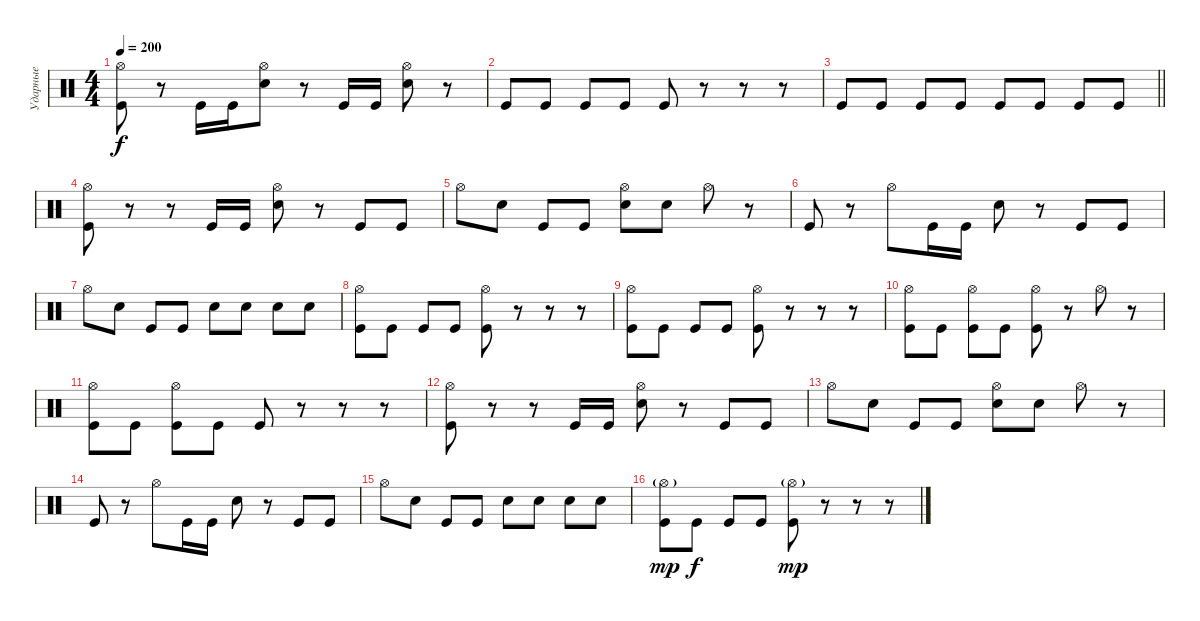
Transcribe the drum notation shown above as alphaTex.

\track ("Ударные" "Ударные") {instrument percussion}
\staff {score}
\articulation defaults
\ts (4 4)
\tempo 200
\clef neutral
\ks c
("Hi-Hat (open)" "Kick (hit)").8{dy f} r.8 "Kick (hit)".16 "Kick (hit)".16 ("Hi-Hat (open)" "Snare (hit) 2").8 r.8 "Kick (hit)".16 "Kick (hit)".16 ("Hi-Hat (open)" "Snare (hit) 2").8 r.8 |
"Kick (hit)".8 "Kick (hit)".8 "Kick (hit)".8 "Kick (hit)".8 "Kick (hit)".8 r.8 r.8 r.8 |
\barLineRight lightlight "Kick (hit)".8 "Kick (hit)".8 "Kick (hit)".8 "Kick (hit)".8 "Kick (hit)".8 "Kick (hit)".8 "Kick (hit)".8 "Kick (hit)".8
|
("Hi-Hat (open)" "Kick (hit)").8 r.8 r.8 "Kick (hit)".16 "Kick (hit)".16 ("Hi-Hat (open)" "Snare (hit) 2").8 r.8 "Kick (hit)".8 "Kick (hit)".8 |
"Hi-Hat (open)".8 "Snare (hit) 2".8 "Kick (hit)".8 "Kick (hit)".8 ("Hi-Hat (open)" "Snare (hit) 2").8 "Snare (hit) 2".8 "Hi-Hat (open)".8 r.8 |
"Kick (hit)".8 r.8 "Hi-Hat (open)".8 "Kick (hit)".16 "Kick (hit)".16 "Snare (hit) 2".8 r.8 "Kick (hit)".8 "Kick (hit)".8 |
"Hi-Hat (open)".8 "Snare (hit) 2".8 "Kick (hit)".8 "Kick (hit)".8 "Snare (hit) 2".8 "Snare (hit) 2".8 "Snare (hit) 2".8 "Snare (hit) 2".8 |
("Hi-Hat (open)" "Kick (hit)").8 "Kick (hit)".8 "Kick (hit)".8 "Kick (hit)".8 ("Hi-Hat (open)" "Kick (hit)").8 r.8 r.8 r.8 |
("Hi-Hat (open)" "Kick (hit)").8 "Kick (hit)".8 "Kick (hit)".8 "Kick (hit)".8 ("Hi-Hat (open)" "Kick (hit)").8 r.8 r.8 r.8 |
("Hi-Hat (open)" "Kick (hit)").8 "Kick (hit)".8 ("Hi-Hat (open)" "Kick (hit)").8 "Kick (hit)".8 ("Hi-Hat (open)" "Kick (hit)").8 r.8 "Hi-Hat (open)".8 r.8 |
("Hi-Hat (open)" "Kick (hit)").8 "Kick (hit)".8 ("Hi-Hat (open)" "Kick (hit)").8 "Kick (hit)".8 "Kick (hit)".8 r.8 r.8 r.8 |
("Hi-Hat (open)" "Kick (hit)").8 r.8 r.8 "Kick (hit)".16 "Kick (hit)".16 ("Hi-Hat (open)" "Snare (hit) 2").8 r.8 "Kick (hit)".8 "Kick (hit)".8 |
"Hi-Hat (open)".8 "Snare (hit) 2".8 "Kick (hit)".8 "Kick (hit)".8 ("Hi-Hat (open)" "Snare (hit) 2").8 "Snare (hit) 2".8 "Hi-Hat (open)".8 r.8 |
"Kick (hit)".8 r.8 "Hi-Hat (open)".8 "Kick (hit)".16 "Kick (hit)".16 "Snare (hit) 2".8 r.8 "Kick (hit)".8 "Kick (hit)".8 |
"Hi-Hat (open)".8 "Snare (hit) 2".8 "Kick (hit)".8 "Kick (hit)".8 "Snare (hit) 2".8 "Snare (hit) 2".8 "Snare (hit) 2".8 "Snare (hit) 2".8 |
("Hi-Hat (open)"{g} "Kick (hit)").8{dy mp} "Kick (hit)".8{dy f} "Kick (hit)".8 "Kick (hit)".8 ("Hi-Hat (open)"{g} "Kick (hit)").8{dy mp} r.8 r.8 r.8
